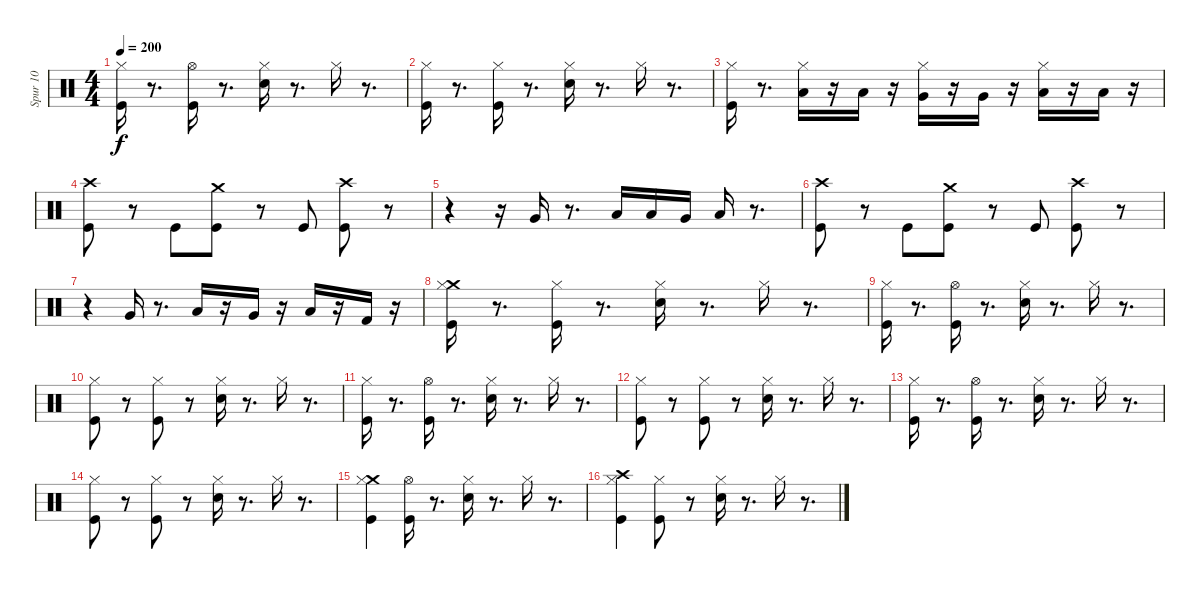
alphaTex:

\track ("Spur 10" "Spur 10") {instrument percussion}
\staff {score}
\articulation defaults
\ts (4 4)
\tempo 200
\clef neutral
\ks c
("Kick (hit)" "Hi-Hat (closed)").16{dy f} r.8{d} ("Kick (hit)" "Hi-Hat (open)").16 r.8{d} ("Snare (hit) 2" "Hi-Hat (closed)").16 r.8{d} "Hi-Hat (closed)".16 r.8{d} |
("Kick (hit)" "Hi-Hat (closed)").16 r.8{d} ("Kick (hit)" "Hi-Hat (closed)").16 r.8{d} ("Snare (hit) 2" "Hi-Hat (closed)").16 r.8{d} "Hi-Hat (closed)".16 r.8{d} |
("Kick (hit)" "Hi-Hat (closed)").16 r.8{d} ("Low Floor Tom (hit)" "Hi-Hat (closed)").16 r.16 "Low Floor Tom (hit)".16 r.16 ("Very Low Tom (hit)" "Hi-Hat (closed)").16 r.16 "Very Low Tom (hit)".16 r.16 ("Low Tom (hit)" "Hi-Hat (closed)").16 r.16 "Low Tom (hit)".16 r.16 |
("Kick (hit)" "Crash high (hit)").8 r.8 "Kick (hit)".8 ("Kick (hit)" "Crash medium (hit)").8 r.8 "Kick (hit)".8 ("Kick (hit)" "Crash high (hit)").8 r.8 |
r.4 r.16 "Very Low Tom (hit)".16 r.8{d} "Low Tom (hit)".16 "Low Tom (hit)".16 "Very Low Tom (hit)".16 "Low Floor Tom (hit)".16 r.8{d} |
("Kick (hit)" "Crash high (hit)").8 r.8 "Kick (hit)".8 ("Kick (hit)" "Crash medium (hit)").8 r.8 "Kick (hit)".8 ("Kick (hit)" "Crash high (hit)").8 r.8 |
r.4 "Very Low Tom (hit)".16 r.8{d} "Low Tom (hit)".16 r.16 "Very Low Tom (hit)".16 r.16 "Low Floor Tom (hit)".16 r.16 "Kick (hit) 2".16 r.16 |
("Kick (hit)" "Crash medium (hit)" "Hi-Hat (closed)").16 r.8{d} ("Kick (hit)" "Hi-Hat (closed)").16 r.8{d} ("Snare (hit) 2" "Hi-Hat (closed)").16 r.8{d} "Hi-Hat (closed)".16 r.8{d} |
("Kick (hit)" "Hi-Hat (closed)").16 r.8{d} ("Kick (hit)" "Hi-Hat (open)").16 r.8{d} ("Snare (hit) 2" "Hi-Hat (closed)").16 r.8{d} "Hi-Hat (closed)".16 r.8{d} |
("Hi-Hat (closed)" "Kick (hit)").8 r.8 ("Kick (hit)" "Hi-Hat (closed)").8 r.8 ("Snare (hit) 2" "Hi-Hat (closed)").16 r.8{d} "Hi-Hat (closed)".16 r.8{d} |
("Kick (hit)" "Hi-Hat (closed)").16 r.8{d} ("Kick (hit)" "Hi-Hat (open)").16 r.8{d} ("Snare (hit) 2" "Hi-Hat (closed)").16 r.8{d} "Hi-Hat (closed)".16 r.8{d} |
("Hi-Hat (closed)" "Kick (hit)").8 r.8 ("Kick (hit)" "Hi-Hat (closed)").8 r.8 ("Snare (hit) 2" "Hi-Hat (closed)").16 r.8{d} "Hi-Hat (closed)".16 r.8{d} |
("Kick (hit)" "Hi-Hat (closed)").16 r.8{d} ("Kick (hit)" "Hi-Hat (open)").16 r.8{d} ("Snare (hit) 2" "Hi-Hat (closed)").16 r.8{d} "Hi-Hat (closed)".16 r.8{d} |
("Hi-Hat (closed)" "Kick (hit)").8 r.8 ("Kick (hit)" "Hi-Hat (closed)").8 r.8 ("Snare (hit) 2" "Hi-Hat (closed)").16 r.8{d} "Hi-Hat (closed)".16 r.8{d} |
("Crash medium (hit)" "Kick (hit)" "Hi-Hat (closed)").4 ("Kick (hit)" "Hi-Hat (open)").16 r.8{d} ("Snare (hit) 2" "Hi-Hat (closed)").16 r.8{d} "Hi-Hat (closed)".16 r.8{d} |
("Crash high (hit)" "Hi-Hat (closed)" "Kick (hit)").4 ("Kick (hit)" "Hi-Hat (closed)").8 r.8 ("Snare (hit) 2" "Hi-Hat (closed)").16 r.8{d} "Hi-Hat (closed)".16 r.8{d}
